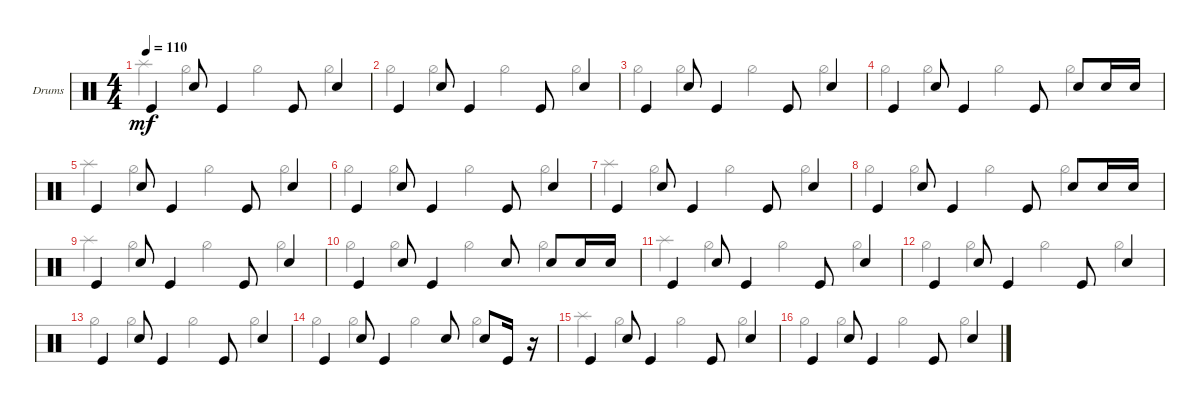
\defaultSystemsLayout 4
\bracketExtendMode groupsimilarinstruments
\firstSystemTrackNameOrientation horizontal
\otherSystemsTrackNameOrientation horizontal
\track ("Drumkit" "Drums") {instrument percussion}
\staff {score}
\articulation defaults
\voice
\ts (4 4)
\tempo 110
\clef neutral
\scale
0.333333
\ks c "Kick (hit)".4{dy mf} "Snare (hit) 2".8 "Kick (hit)".4 "Kick (hit)".8 "Snare (hit) 2".4
|
\scale
0.333333 "Kick (hit)".4 "Snare (hit) 2".8 "Kick (hit)".4 "Kick (hit)".8 "Snare (hit) 2".4 |
\scale
0.333333 "Kick (hit)".4 "Snare (hit) 2".8 "Kick (hit)".4 "Kick (hit)".8 "Snare (hit) 2".4 |
\scale
0.333333 "Kick (hit)".4 "Snare (hit) 2".8 "Kick (hit)".4 "Kick (hit)".8 "Snare (hit) 2".8 "Snare (hit) 2".16 "Snare (hit) 2".16 |
\scale
0.333333 "Kick (hit)".4 "Snare (hit) 2".8 "Kick (hit)".4 "Kick (hit)".8 "Snare (hit) 2".4 |
\scale
0.333333 "Kick (hit)".4 "Snare (hit) 2".8 "Kick (hit)".4 "Kick (hit)".8 "Snare (hit) 2".4 |
\scale
0.333333 "Kick (hit)".4 "Snare (hit) 2".8 "Kick (hit)".4 "Kick (hit)".8 "Snare (hit) 2".4 |
\scale
0.333333 "Kick (hit)".4 "Snare (hit) 2".8 "Kick (hit)".4 "Kick (hit)".8 "Snare (hit) 2".8 "Snare (hit) 2".16 "Snare (hit) 2".16 |
\scale
0.333333 "Kick (hit)".4 "Snare (hit) 2".8 "Kick (hit)".4 "Kick (hit)".8 "Snare (hit) 2".4 |
\scale
0.333333 "Kick (hit)".4 "Snare (hit) 2".8 "Kick (hit)".4 "Snare (hit) 2".8 "Snare (hit) 2".8 "Snare (hit) 2".16 "Snare (hit) 2".16 |
\scale
0.333333 "Kick (hit)".4 "Snare (hit) 2".8 "Kick (hit)".4 "Kick (hit)".8 "Snare (hit) 2".4 |
\scale
0.333333 "Kick (hit)".4 "Snare (hit) 2".8 "Kick (hit)".4 "Kick (hit)".8 "Snare (hit) 2".4 |
\scale
0.333333 "Kick (hit)".4 "Snare (hit) 2".8 "Kick (hit)".4 "Kick (hit)".8 "Snare (hit) 2".4 |
\scale
0.333333 "Kick (hit)".4 "Snare (hit) 2".8 "Kick (hit)".4 "Snare (hit) 2".8 "Snare (hit) 2".8 "Kick (hit)".16 r.16 |
\scale
0.333333 "Kick (hit)".4 "Snare (hit) 2".8 "Kick (hit)".4 "Kick (hit)".8 "Snare (hit) 2".4 |
\scale
0.333333 "Kick (hit)".4 "Snare (hit) 2".8 "Kick (hit)".4 "Kick (hit)".8 "Snare (hit) 2".4
\voice
\clef neutral
\ottava regular
\simile none
\scale
0.333333
\ks c "Splash (hit)".4{dy mf} "Hi-Hat (half)".4 "Hi-Hat (half)".4 "Hi-Hat (half)".4
|
\scale
0.333333 "Hi-Hat (half)".4 "Hi-Hat (half)".4 "Hi-Hat (half)".4 "Hi-Hat (half)".4 |
\scale
0.333333 "Hi-Hat (half)".4 "Hi-Hat (half)".4 "Hi-Hat (half)".4 "Hi-Hat (half)".4 |
\scale
0.333333 "Hi-Hat (half)".4 "Hi-Hat (half)".4 "Hi-Hat (half)".4 "Hi-Hat (half)".4 |
\scale
0.333333 "Splash (hit)".4 "Hi-Hat (half)".4 "Hi-Hat (half)".4 "Hi-Hat (half)".4 |
\scale
0.333333 "Hi-Hat (half)".4 "Hi-Hat (half)".4 "Hi-Hat (half)".4 "Hi-Hat (half)".4 |
\scale
0.333333 "Splash (hit)".4 "Hi-Hat (half)".4 "Hi-Hat (half)".4 "Hi-Hat (half)".4 |
\scale
0.333333 "Hi-Hat (half)".4 "Hi-Hat (half)".4 "Hi-Hat (half)".4 "Hi-Hat (half)".4 |
\scale
0.333333 "Splash (hit)".4 "Hi-Hat (half)".4 "Hi-Hat (half)".4 "Hi-Hat (half)".4 |
\scale
0.333333 "Hi-Hat (half)".4 "Hi-Hat (half)".4 "Hi-Hat (half)".4 "Hi-Hat (half)".4 |
\scale
0.333333 "Splash (hit)".4 "Hi-Hat (half)".4 "Hi-Hat (half)".4 "Hi-Hat (half)".4 |
\scale
0.333333 "Hi-Hat (half)".4 "Hi-Hat (half)".4 "Hi-Hat (half)".4 "Hi-Hat (half)".4 |
\scale
0.333333 "Hi-Hat (half)".4 "Hi-Hat (half)".4 "Hi-Hat (half)".4 "Hi-Hat (half)".4 |
\scale
0.333333 "Hi-Hat (half)".4 "Hi-Hat (half)".4 "Hi-Hat (half)".4 "Hi-Hat (half)".4 |
\scale
0.333333 "Splash (hit)".4 "Hi-Hat (half)".4 "Hi-Hat (half)".4 "Hi-Hat (half)".4 |
\scale
0.333333 "Hi-Hat (half)".4 "Hi-Hat (half)".4 "Hi-Hat (half)".4 "Hi-Hat (half)".4
